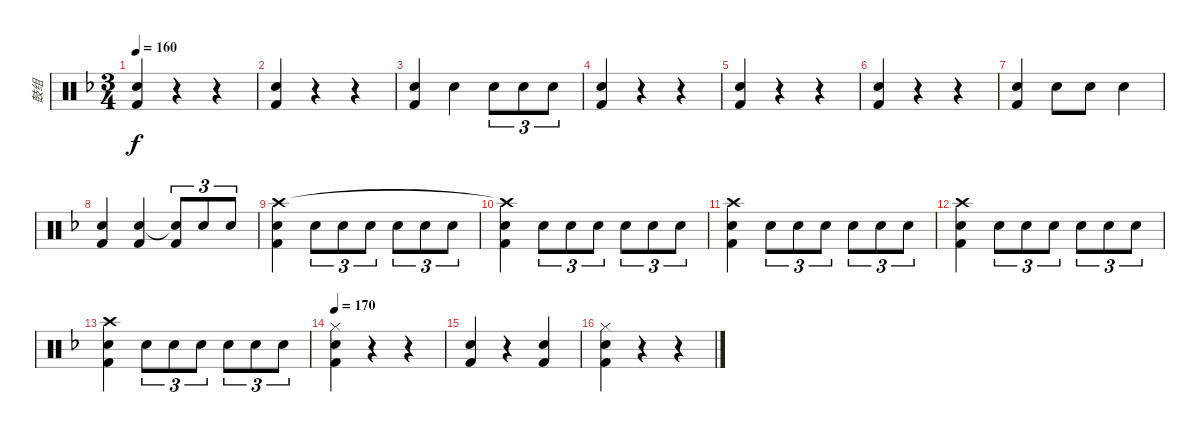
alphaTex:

\track ("鼓组" "鼓组") {instrument percussion}
\staff {score}
\articulation defaults
\ts (3 4)
\tempo 160
\clef neutral
\ks f
("Snare (hit) 2" "Kick (hit) 2").4{dy f} r.4 r.4 |
("Snare (hit) 2" "Kick (hit) 2").4 r.4 r.4 |
("Snare (hit) 2" "Kick (hit) 2").4 "Snare (hit) 2".4 "Snare (hit) 2".8{tu (3 2)} "Snare (hit) 2".8{tu (3 2)} "Snare (hit) 2".8{tu (3 2)} |
("Snare (hit) 2" "Kick (hit) 2").4 r.4 r.4 |
("Snare (hit) 2" "Kick (hit) 2").4 r.4 r.4 |
("Snare (hit) 2" "Kick (hit) 2").4 r.4 r.4 |
("Snare (hit) 2" "Kick (hit) 2").4 "Snare (hit) 2".8 "Snare (hit) 2".8 "Snare (hit) 2".4 |
("Snare (hit) 2" "Kick (hit) 2").4 ("Snare (hit) 2" "Kick (hit) 2").4 ("Snare (hit)"{t} "Kick (hit) 2").8{tu (3 2)} "Snare (hit) 2".8{tu (3 2)} "Snare (hit) 2".8{tu (3 2)} |
("Snare (hit) 2" "Crash high (hit)" "Kick (hit) 2").4 "Snare (hit) 2".8{tu (3 2)} "Snare (hit) 2".8{tu (3 2)} "Snare (hit) 2".8{tu (3 2)} "Snare (hit) 2".8{tu (3 2)} "Snare (hit) 2".8{tu (3 2)} "Snare (hit) 2".8{tu (3 2)} |
("Snare (hit) 2" "Crash high (hit)"{t} "Kick (hit) 2").4 "Snare (hit) 2".8{tu (3 2)} "Snare (hit) 2".8{tu (3 2)} "Snare (hit) 2".8{tu (3 2)} "Snare (hit) 2".8{tu (3 2)} "Snare (hit) 2".8{tu (3 2)} "Snare (hit) 2".8{tu (3 2)} |
("Snare (hit) 2" "Crash high (hit)" "Kick (hit) 2").4 "Snare (hit) 2".8{tu (3 2)} "Snare (hit)".8{tu (3 2)} "Snare (hit) 2".8{tu (3 2)} "Snare (hit) 2".8{tu (3 2)} "Snare (hit) 2".8{tu (3 2)} "Snare (hit) 2".8{tu (3 2)} |
("Snare (hit) 2" "Crash high (hit)" "Kick (hit) 2").4 "Snare (hit) 2".8{tu (3 2)} "Snare (hit)".8{tu (3 2)} "Snare (hit) 2".8{tu (3 2)} "Snare (hit) 2".8{tu (3 2)} "Snare (hit) 2".8{tu (3 2)} "Snare (hit) 2".8{tu (3 2)} |
("Snare (hit) 2" "Crash high (hit)" "Kick (hit) 2").4 "Snare (hit) 2".8{tu (3 2)} "Snare (hit)".8{tu (3 2)} "Snare (hit) 2".8{tu (3 2)} "Snare (hit) 2".8{tu (3 2)} "Snare (hit) 2".8{tu (3 2)} "Snare (hit) 2".8{tu (3 2)} |
\tempo 170
("Snare (hit) 2" "Hi-Hat (closed)" "Kick (hit) 2").4 r.4 r.4 |
("Snare (hit) 2" "Kick (hit) 2").4 r.4 ("Snare (hit) 2" "Kick (hit) 2").4 |
("Snare (hit) 2" "Hi-Hat (closed)" "Kick (hit) 2").4 r.4 r.4
